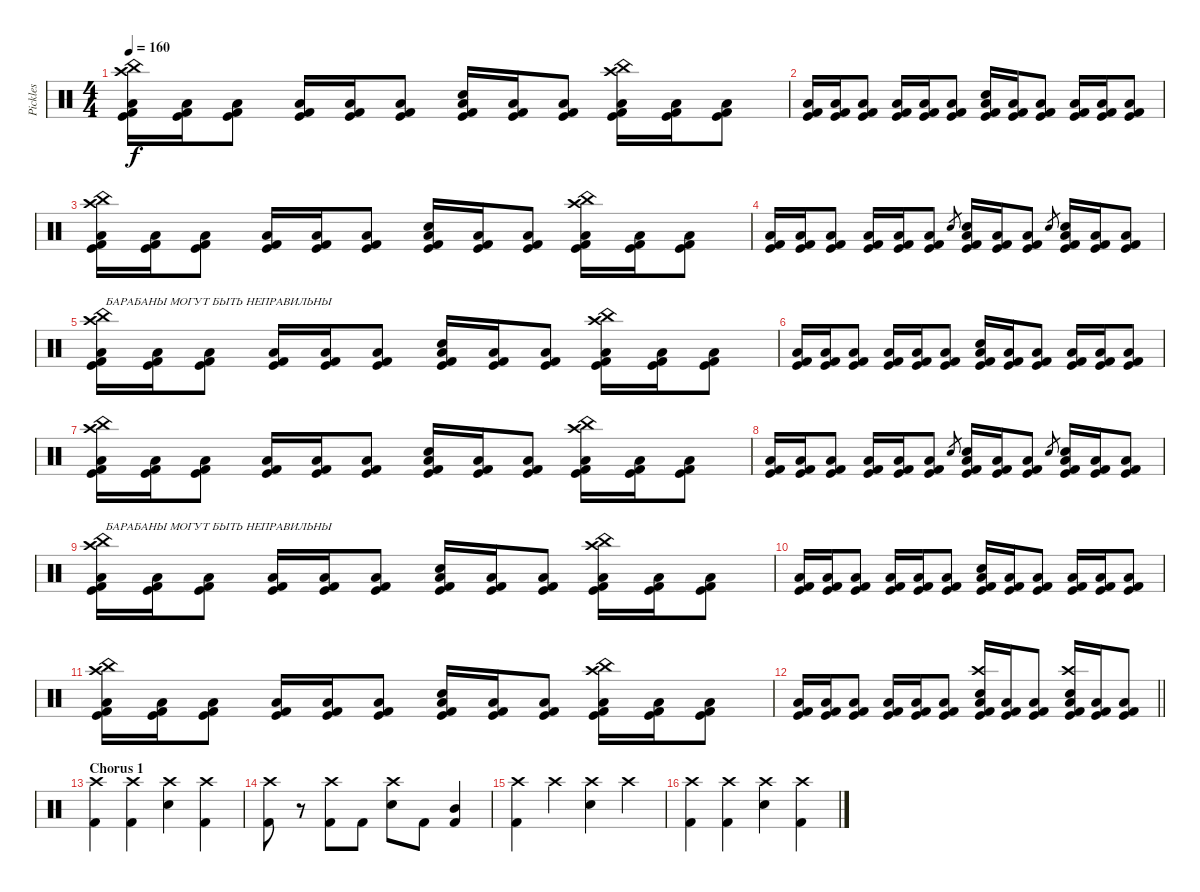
\track ("Pickles" "Pickles") {instrument percussion}
\staff {score}
\articulation defaults
\ts (4 4)
\tempo 160
\clef neutral
\ks c
("Kick (hit) 2" "Kick (hit)" "Low Tom (hit)" "China (hit)" "Crash high (hit)").16{dy f} ("Kick (hit) 2" "Kick (hit)" "Low Tom (hit)").16 ("Kick (hit) 2" "Kick (hit)" "Low Tom (hit)").8 ("Kick (hit) 2" "Kick (hit)" "Low Tom (hit)").16 ("Kick (hit) 2" "Kick (hit)" "Low Tom (hit)").16 ("Kick (hit) 2" "Kick (hit)" "Low Tom (hit)").8 ("Kick (hit) 2" "Kick (hit)" "Low Tom (hit)" "Electric Snare (hit)").16 ("Kick (hit) 2" "Kick (hit)" "Low Tom (hit)").16 ("Kick (hit) 2" "Kick (hit)" "Low Tom (hit)").8 ("Kick (hit) 2" "Kick (hit)" "Low Tom (hit)" "China (hit)" "Crash high (hit)").16 ("Kick (hit) 2" "Kick (hit)" "Low Tom (hit)").16 ("Kick (hit) 2" "Kick (hit)" "Low Tom (hit)").8 |
("Kick (hit) 2" "Kick (hit)" "Low Tom (hit)").16 ("Kick (hit) 2" "Kick (hit)" "Low Tom (hit)").16 ("Kick (hit) 2" "Kick (hit)" "Low Tom (hit)").8 ("Kick (hit) 2" "Kick (hit)" "Low Tom (hit)").16 ("Kick (hit) 2" "Kick (hit)" "Low Tom (hit)").16 ("Kick (hit) 2" "Kick (hit)" "Low Tom (hit)").8 ("Kick (hit) 2" "Kick (hit)" "Low Tom (hit)" "Electric Snare (hit)").16 ("Kick (hit) 2" "Kick (hit)" "Low Tom (hit)").16 ("Kick (hit) 2" "Kick (hit)" "Low Tom (hit)").8 ("Kick (hit) 2" "Kick (hit)" "Low Tom (hit)").16 ("Kick (hit) 2" "Kick (hit)" "Low Tom (hit)").16 ("Kick (hit) 2" "Kick (hit)" "Low Tom (hit)").8 |
("Kick (hit) 2" "Kick (hit)" "Low Tom (hit)" "China (hit)" "Crash high (hit)").16 ("Kick (hit) 2" "Kick (hit)" "Low Tom (hit)").16 ("Kick (hit) 2" "Kick (hit)" "Low Tom (hit)").8 ("Kick (hit) 2" "Kick (hit)" "Low Tom (hit)").16 ("Kick (hit) 2" "Kick (hit)" "Low Tom (hit)").16 ("Kick (hit) 2" "Kick (hit)" "Low Tom (hit)").8 ("Kick (hit) 2" "Kick (hit)" "Low Tom (hit)" "Electric Snare (hit)").16 ("Kick (hit) 2" "Kick (hit)" "Low Tom (hit)").16 ("Kick (hit) 2" "Kick (hit)" "Low Tom (hit)").8 ("Kick (hit) 2" "Kick (hit)" "Low Tom (hit)" "China (hit)" "Crash high (hit)").16 ("Kick (hit) 2" "Kick (hit)" "Low Tom (hit)").16 ("Kick (hit) 2" "Kick (hit)" "Low Tom (hit)").8 |
("Kick (hit) 2" "Kick (hit)" "Low Tom (hit)").16 ("Kick (hit) 2" "Kick (hit)" "Low Tom (hit)").16 ("Kick (hit) 2" "Kick (hit)" "Low Tom (hit)").8 ("Kick (hit) 2" "Kick (hit)" "Low Tom (hit)").16 ("Kick (hit) 2" "Kick (hit)" "Low Tom (hit)").16 ("Kick (hit) 2" "Kick (hit)" "Low Tom (hit)").8 "Electric Snare (hit)".8{gr} ("Kick (hit) 2" "Kick (hit)" "Low Tom (hit)" "Electric Snare (hit)").16 ("Kick (hit) 2" "Kick (hit)" "Low Tom (hit)").16 ("Kick (hit) 2" "Kick (hit)" "Low Tom (hit)").8 "Electric Snare (hit)".8{gr} ("Kick (hit) 2" "Kick (hit)" "Low Tom (hit)" "Electric Snare (hit)").16 ("Kick (hit) 2" "Kick (hit)" "Low Tom (hit)").16 ("Kick (hit) 2" "Kick (hit)" "Low Tom (hit)").8 |
("Kick (hit) 2" "Kick (hit)" "Low Tom (hit)" "China (hit)" "Crash high (hit)").16{txt "БАРАБАНЫ МОГУТ БЫТЬ НЕПРАВИЛЬНЫ"} ("Kick (hit) 2" "Kick (hit)" "Low Tom (hit)").16 ("Kick (hit) 2" "Kick (hit)" "Low Tom (hit)").8 ("Kick (hit) 2" "Kick (hit)" "Low Tom (hit)").16 ("Kick (hit) 2" "Kick (hit)" "Low Tom (hit)").16 ("Kick (hit) 2" "Kick (hit)" "Low Tom (hit)").8 ("Kick (hit) 2" "Kick (hit)" "Low Tom (hit)" "Electric Snare (hit)").16 ("Kick (hit) 2" "Kick (hit)" "Low Tom (hit)").16 ("Kick (hit) 2" "Kick (hit)" "Low Tom (hit)").8 ("Kick (hit) 2" "Kick (hit)" "Low Tom (hit)" "China (hit)" "Crash high (hit)").16 ("Kick (hit) 2" "Kick (hit)" "Low Tom (hit)").16 ("Kick (hit) 2" "Kick (hit)" "Low Tom (hit)").8 |
("Kick (hit) 2" "Kick (hit)" "Low Tom (hit)").16 ("Kick (hit) 2" "Kick (hit)" "Low Tom (hit)").16 ("Kick (hit) 2" "Kick (hit)" "Low Tom (hit)").8 ("Kick (hit) 2" "Kick (hit)" "Low Tom (hit)").16 ("Kick (hit) 2" "Kick (hit)" "Low Tom (hit)").16 ("Kick (hit) 2" "Kick (hit)" "Low Tom (hit)").8 ("Kick (hit) 2" "Kick (hit)" "Low Tom (hit)" "Electric Snare (hit)").16 ("Kick (hit) 2" "Kick (hit)" "Low Tom (hit)").16 ("Kick (hit) 2" "Kick (hit)" "Low Tom (hit)").8 ("Kick (hit) 2" "Kick (hit)" "Low Tom (hit)").16 ("Kick (hit) 2" "Kick (hit)" "Low Tom (hit)").16 ("Kick (hit) 2" "Kick (hit)" "Low Tom (hit)").8 |
("Kick (hit) 2" "Kick (hit)" "Low Tom (hit)" "China (hit)" "Crash high (hit)").16 ("Kick (hit) 2" "Kick (hit)" "Low Tom (hit)").16 ("Kick (hit) 2" "Kick (hit)" "Low Tom (hit)").8 ("Kick (hit) 2" "Kick (hit)" "Low Tom (hit)").16 ("Kick (hit) 2" "Kick (hit)" "Low Tom (hit)").16 ("Kick (hit) 2" "Kick (hit)" "Low Tom (hit)").8 ("Kick (hit) 2" "Kick (hit)" "Low Tom (hit)" "Electric Snare (hit)").16 ("Kick (hit) 2" "Kick (hit)" "Low Tom (hit)").16 ("Kick (hit) 2" "Kick (hit)" "Low Tom (hit)").8 ("Kick (hit) 2" "Kick (hit)" "Low Tom (hit)" "China (hit)" "Crash high (hit)").16 ("Kick (hit) 2" "Kick (hit)" "Low Tom (hit)").16 ("Kick (hit) 2" "Kick (hit)" "Low Tom (hit)").8 |
("Kick (hit) 2" "Kick (hit)" "Low Tom (hit)").16 ("Kick (hit) 2" "Kick (hit)" "Low Tom (hit)").16 ("Kick (hit) 2" "Kick (hit)" "Low Tom (hit)").8 ("Kick (hit) 2" "Kick (hit)" "Low Tom (hit)").16 ("Kick (hit) 2" "Kick (hit)" "Low Tom (hit)").16 ("Kick (hit) 2" "Kick (hit)" "Low Tom (hit)").8 "Electric Snare (hit)".8{gr} ("Kick (hit) 2" "Kick (hit)" "Low Tom (hit)" "Electric Snare (hit)").16 ("Kick (hit) 2" "Kick (hit)" "Low Tom (hit)").16 ("Kick (hit) 2" "Kick (hit)" "Low Tom (hit)").8 "Electric Snare (hit)".8{gr} ("Kick (hit) 2" "Kick (hit)" "Low Tom (hit)" "Electric Snare (hit)").16 ("Kick (hit) 2" "Kick (hit)" "Low Tom (hit)").16 ("Kick (hit) 2" "Kick (hit)" "Low Tom (hit)").8 |
("Kick (hit) 2" "Kick (hit)" "Low Tom (hit)" "China (hit)" "Crash high (hit)").16{txt "БАРАБАНЫ МОГУТ БЫТЬ НЕПРАВИЛЬНЫ"} ("Kick (hit) 2" "Kick (hit)" "Low Tom (hit)").16 ("Kick (hit) 2" "Kick (hit)" "Low Tom (hit)").8 ("Kick (hit) 2" "Kick (hit)" "Low Tom (hit)").16 ("Kick (hit) 2" "Kick (hit)" "Low Tom (hit)").16 ("Kick (hit) 2" "Kick (hit)" "Low Tom (hit)").8 ("Kick (hit) 2" "Kick (hit)" "Low Tom (hit)" "Electric Snare (hit)").16 ("Kick (hit) 2" "Kick (hit)" "Low Tom (hit)").16 ("Kick (hit) 2" "Kick (hit)" "Low Tom (hit)").8 ("Kick (hit) 2" "Kick (hit)" "Low Tom (hit)" "China (hit)" "Crash high (hit)").16 ("Kick (hit) 2" "Kick (hit)" "Low Tom (hit)").16 ("Kick (hit) 2" "Kick (hit)" "Low Tom (hit)").8 |
("Kick (hit) 2" "Kick (hit)" "Low Tom (hit)").16 ("Kick (hit) 2" "Kick (hit)" "Low Tom (hit)").16 ("Kick (hit) 2" "Kick (hit)" "Low Tom (hit)").8 ("Kick (hit) 2" "Kick (hit)" "Low Tom (hit)").16 ("Kick (hit) 2" "Kick (hit)" "Low Tom (hit)").16 ("Kick (hit) 2" "Kick (hit)" "Low Tom (hit)").8 ("Kick (hit) 2" "Kick (hit)" "Low Tom (hit)" "Electric Snare (hit)").16 ("Kick (hit) 2" "Kick (hit)" "Low Tom (hit)").16 ("Kick (hit) 2" "Kick (hit)" "Low Tom (hit)").8 ("Kick (hit) 2" "Kick (hit)" "Low Tom (hit)").16 ("Kick (hit) 2" "Kick (hit)" "Low Tom (hit)").16 ("Kick (hit) 2" "Kick (hit)" "Low Tom (hit)").8 |
("Kick (hit) 2" "Kick (hit)" "Low Tom (hit)" "China (hit)" "Crash high (hit)").16 ("Kick (hit) 2" "Kick (hit)" "Low Tom (hit)").16 ("Kick (hit) 2" "Kick (hit)" "Low Tom (hit)").8 ("Kick (hit) 2" "Kick (hit)" "Low Tom (hit)").16 ("Kick (hit) 2" "Kick (hit)" "Low Tom (hit)").16 ("Kick (hit) 2" "Kick (hit)" "Low Tom (hit)").8 ("Kick (hit) 2" "Kick (hit)" "Low Tom (hit)" "Electric Snare (hit)").16 ("Kick (hit) 2" "Kick (hit)" "Low Tom (hit)").16 ("Kick (hit) 2" "Kick (hit)" "Low Tom (hit)").8 ("Kick (hit) 2" "Kick (hit)" "Low Tom (hit)" "China (hit)" "Crash high (hit)").16 ("Kick (hit) 2" "Kick (hit)" "Low Tom (hit)").16 ("Kick (hit) 2" "Kick (hit)" "Low Tom (hit)").8 |
\barLineRight lightlight
("Kick (hit) 2" "Kick (hit)" "Low Tom (hit)").16 ("Kick (hit) 2" "Kick (hit)" "Low Tom (hit)").16 ("Kick (hit) 2" "Kick (hit)" "Low Tom (hit)").8 ("Kick (hit) 2" "Kick (hit)" "Low Tom (hit)").16 ("Kick (hit) 2" "Kick (hit)" "Low Tom (hit)").16 ("Kick (hit) 2" "Kick (hit)" "Low Tom (hit)").8 ("Kick (hit) 2" "Kick (hit)" "Low Tom (hit)" "Electric Snare (hit)" "Crash high (hit)").16 ("Kick (hit) 2" "Kick (hit)" "Low Tom (hit)").16 ("Kick (hit) 2" "Kick (hit)" "Low Tom (hit)").8 ("Kick (hit) 2" "Kick (hit)" "Low Tom (hit)" "Electric Snare (hit)" "Crash high (hit)").16 ("Kick (hit) 2" "Kick (hit)" "Low Tom (hit)").16 ("Kick (hit) 2" "Kick (hit)" "Low Tom (hit)").8 |
\section ("" "Chorus 1")
("Crash high (hit)" "Kick (hit) 2").4 ("Crash high (hit)" "Kick (hit) 2").4 ("Crash high (hit)" "Electric Snare (hit)").4 ("Crash high (hit)" "Kick (hit) 2").4 |
("Crash high (hit)" "Kick (hit) 2").8 r.8 ("Crash high (hit)" "Kick (hit) 2").8 "Kick (hit) 2".8 ("Crash high (hit)" "Electric Snare (hit)").8 "Kick (hit) 2".8 ("Mid Tom (hit)" "Kick (hit) 2").4 |
("Crash high (hit)" "Kick (hit) 2").4 "Crash high (hit)".4 ("Crash high (hit)" "Electric Snare (hit)").4 "Crash high (hit)".4 |
("Crash high (hit)" "Kick (hit) 2").4 ("Crash high (hit)" "Kick (hit) 2").4 ("Crash high (hit)" "Electric Snare (hit)").4 ("Crash high (hit)" "Kick (hit) 2").4
